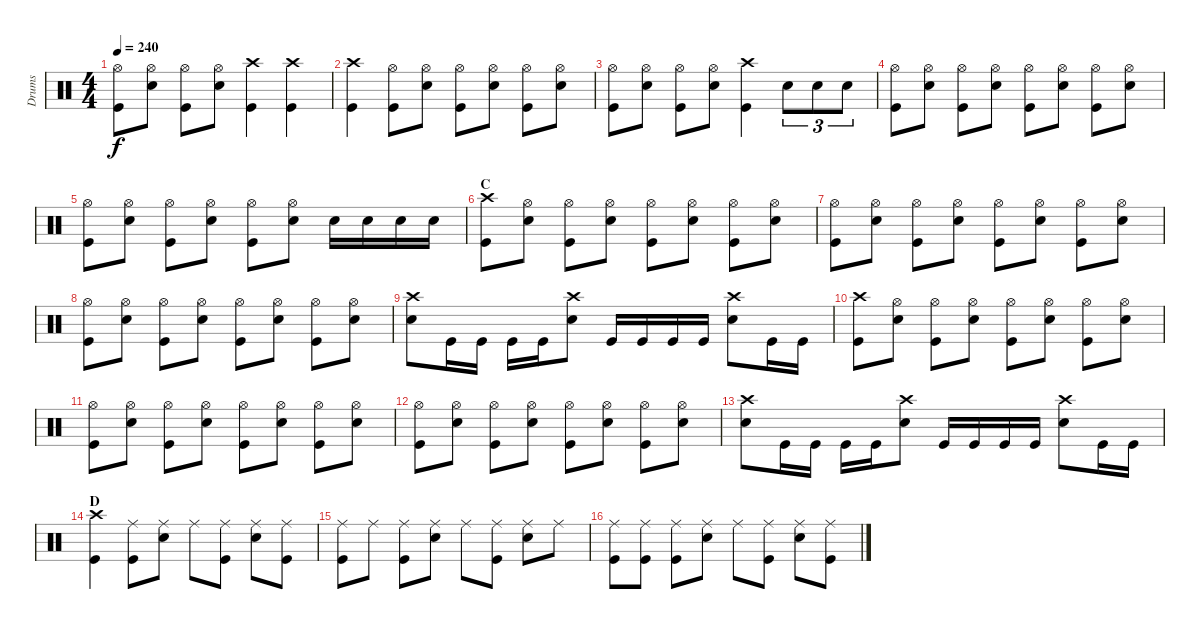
\track ("Drums" "Drums") {instrument percussion}
\staff {score}
\articulation defaults
\ts (4 4)
\tempo 240
\clef neutral
\ks c
("Hi-Hat (open)" "Kick (hit)").8{dy f} ("Hi-Hat (open)" "Snare (hit) 2").8 ("Hi-Hat (open)" "Kick (hit)").8 ("Hi-Hat (open)" "Snare (hit) 2").8 ("Crash high (hit)" "Kick (hit)").4 ("Crash high (hit)" "Kick (hit)").4 |
("Crash high (hit)" "Kick (hit)").4 ("Hi-Hat (open)" "Kick (hit)").8 ("Hi-Hat (open)" "Snare (hit) 2").8 ("Hi-Hat (open)" "Kick (hit)").8 ("Hi-Hat (open)" "Snare (hit) 2").8 ("Hi-Hat (open)" "Kick (hit)").8 ("Hi-Hat (open)" "Snare (hit) 2").8 |
("Hi-Hat (open)" "Kick (hit)").8 ("Hi-Hat (open)" "Snare (hit) 2").8 ("Hi-Hat (open)" "Kick (hit)").8 ("Hi-Hat (open)" "Snare (hit) 2").8 ("Crash high (hit)" "Kick (hit)").4 "Snare (hit) 2".8{tu (3 2)} "Snare (hit) 2".8{tu (3 2)} "Snare (hit) 2".8{tu (3 2)} |
("Hi-Hat (open)" "Kick (hit)").8 ("Hi-Hat (open)" "Snare (hit) 2").8 ("Hi-Hat (open)" "Kick (hit)").8 ("Hi-Hat (open)" "Snare (hit) 2").8 ("Hi-Hat (open)" "Kick (hit)").8 ("Hi-Hat (open)" "Snare (hit) 2").8 ("Hi-Hat (open)" "Kick (hit)").8 ("Hi-Hat (open)" "Snare (hit) 2").8 |
("Hi-Hat (open)" "Kick (hit)").8 ("Hi-Hat (open)" "Snare (hit) 2").8 ("Hi-Hat (open)" "Kick (hit)").8 ("Hi-Hat (open)" "Snare (hit) 2").8 ("Hi-Hat (open)" "Kick (hit)").8 ("Hi-Hat (open)" "Snare (hit) 2").8 "Snare (hit) 2".16 "Snare (hit) 2".16 "Snare (hit) 2".16 "Snare (hit) 2".16 |
\section ("" "C")
("Crash high (hit)" "Kick (hit)").8 ("Hi-Hat (open)" "Snare (hit) 2").8 ("Hi-Hat (open)" "Kick (hit)").8 ("Hi-Hat (open)" "Snare (hit) 2").8 ("Hi-Hat (open)" "Kick (hit)").8 ("Hi-Hat (open)" "Snare (hit) 2").8 ("Hi-Hat (open)" "Kick (hit)").8 ("Hi-Hat (open)" "Snare (hit) 2").8 |
("Hi-Hat (open)" "Kick (hit)").8 ("Hi-Hat (open)" "Snare (hit) 2").8 ("Hi-Hat (open)" "Kick (hit)").8 ("Hi-Hat (open)" "Snare (hit) 2").8 ("Hi-Hat (open)" "Kick (hit)").8 ("Hi-Hat (open)" "Snare (hit) 2").8 ("Hi-Hat (open)" "Kick (hit)").8 ("Hi-Hat (open)" "Snare (hit) 2").8 |
("Hi-Hat (open)" "Kick (hit)").8 ("Hi-Hat (open)" "Snare (hit) 2").8 ("Hi-Hat (open)" "Kick (hit)").8 ("Hi-Hat (open)" "Snare (hit) 2").8 ("Hi-Hat (open)" "Kick (hit)").8 ("Hi-Hat (open)" "Snare (hit) 2").8 ("Hi-Hat (open)" "Kick (hit)").8 ("Hi-Hat (open)" "Snare (hit) 2").8 |
("Crash high (hit)" "Snare (hit) 2").8 "Kick (hit)".16 "Kick (hit)".16 "Kick (hit)".16 "Kick (hit)".16 ("Crash high (hit)" "Snare (hit) 2").8 "Kick (hit)".16 "Kick (hit)".16 "Kick (hit)".16 "Kick (hit)".16 ("Crash high (hit)" "Snare (hit) 2").8 "Kick (hit)".16 "Kick (hit)".16 |
("Crash high (hit)" "Kick (hit)").8 ("Hi-Hat (open)" "Snare (hit) 2").8 ("Hi-Hat (open)" "Kick (hit)").8 ("Hi-Hat (open)" "Snare (hit) 2").8 ("Hi-Hat (open)" "Kick (hit)").8 ("Hi-Hat (open)" "Snare (hit) 2").8 ("Hi-Hat (open)" "Kick (hit)").8 ("Hi-Hat (open)" "Snare (hit) 2").8 |
("Hi-Hat (open)" "Kick (hit)").8 ("Hi-Hat (open)" "Snare (hit) 2").8 ("Hi-Hat (open)" "Kick (hit)").8 ("Hi-Hat (open)" "Snare (hit) 2").8 ("Hi-Hat (open)" "Kick (hit)").8 ("Hi-Hat (open)" "Snare (hit) 2").8 ("Hi-Hat (open)" "Kick (hit)").8 ("Hi-Hat (open)" "Snare (hit) 2").8 |
("Hi-Hat (open)" "Kick (hit)").8 ("Hi-Hat (open)" "Snare (hit) 2").8 ("Hi-Hat (open)" "Kick (hit)").8 ("Hi-Hat (open)" "Snare (hit) 2").8 ("Hi-Hat (open)" "Kick (hit)").8 ("Hi-Hat (open)" "Snare (hit) 2").8 ("Hi-Hat (open)" "Kick (hit)").8 ("Hi-Hat (open)" "Snare (hit) 2").8 |
("Crash high (hit)" "Snare (hit) 2").8 "Kick (hit)".16 "Kick (hit)".16 "Kick (hit)".16 "Kick (hit)".16 ("Crash high (hit)" "Snare (hit) 2").8 "Kick (hit)".16 "Kick (hit)".16 "Kick (hit)".16 "Kick (hit)".16 ("Crash high (hit)" "Snare (hit) 2").8 "Kick (hit)".16 "Kick (hit)".16 |
\section ("" "D")
("Crash high (hit)" "Kick (hit)").4 ("Ride (middle)" "Kick (hit)").8 ("Ride (middle)" "Snare (hit) 2").8 "Ride (middle)".8 ("Ride (middle)" "Kick (hit)").8 ("Ride (middle)" "Snare (hit) 2").8 ("Ride (middle)" "Kick (hit)").8 |
("Ride (middle)" "Kick (hit)").8 "Ride (middle)".8 ("Ride (middle)" "Kick (hit)").8 ("Ride (middle)" "Snare (hit) 2").8 "Ride (middle)".8 ("Ride (middle)" "Kick (hit)").8 ("Ride (middle)" "Snare (hit) 2").8 "Ride (middle)".8 |
("Ride (middle)" "Kick (hit)").8 ("Ride (middle)" "Kick (hit)").8 ("Ride (middle)" "Kick (hit)").8 ("Ride (middle)" "Snare (hit) 2").8 "Ride (middle)".8 ("Ride (middle)" "Kick (hit)").8 ("Ride (middle)" "Snare (hit) 2").8 ("Ride (middle)" "Kick (hit)").8
